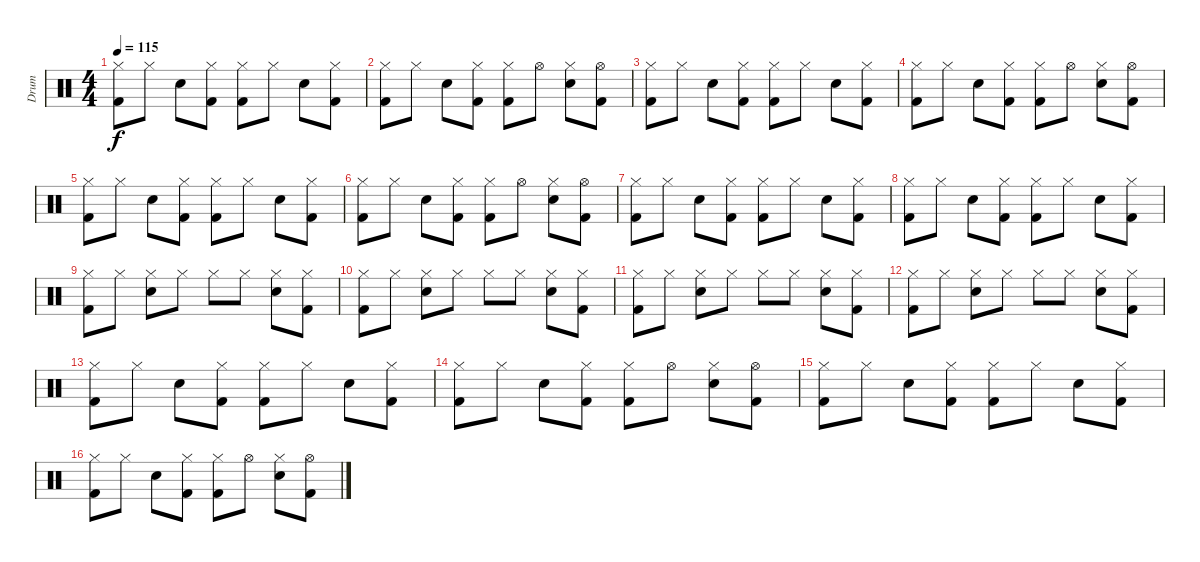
\track ("Drum" "Drum") {instrument percussion}
\staff {score}
\articulation defaults
\ts (4 4)
\tempo 115
\clef neutral
\ks c
("Hi-Hat (closed)" "Kick (hit) 2").8{dy f} "Hi-Hat (closed)".8 "Electric Snare (hit)".8 ("Hi-Hat (closed)" "Kick (hit) 2").8 ("Hi-Hat (closed)" "Kick (hit) 2").8 "Hi-Hat (closed)".8 "Electric Snare (hit)".8 ("Hi-Hat (closed)" "Kick (hit) 2").8 |
("Hi-Hat (closed)" "Kick (hit) 2").8 "Hi-Hat (closed)".8 "Electric Snare (hit)".8 ("Hi-Hat (closed)" "Kick (hit) 2").8 ("Hi-Hat (closed)" "Kick (hit) 2").8 "Hi-Hat (open)".8 ("Hi-Hat (closed)" "Electric Snare (hit)").8 ("Hi-Hat (open)" "Kick (hit) 2").8 |
("Hi-Hat (closed)" "Kick (hit) 2").8 "Hi-Hat (closed)".8 "Electric Snare (hit)".8 ("Hi-Hat (closed)" "Kick (hit) 2").8 ("Hi-Hat (closed)" "Kick (hit) 2").8 "Hi-Hat (closed)".8 "Electric Snare (hit)".8 ("Hi-Hat (closed)" "Kick (hit) 2").8 |
("Hi-Hat (closed)" "Kick (hit) 2").8 "Hi-Hat (closed)".8 "Electric Snare (hit)".8 ("Hi-Hat (closed)" "Kick (hit) 2").8 ("Hi-Hat (closed)" "Kick (hit) 2").8 "Hi-Hat (open)".8 ("Hi-Hat (closed)" "Electric Snare (hit)").8 ("Hi-Hat (open)" "Kick (hit) 2").8 |
("Hi-Hat (closed)" "Kick (hit) 2").8 "Hi-Hat (closed)".8 "Electric Snare (hit)".8 ("Hi-Hat (closed)" "Kick (hit) 2").8 ("Hi-Hat (closed)" "Kick (hit) 2").8 "Hi-Hat (closed)".8 "Electric Snare (hit)".8 ("Hi-Hat (closed)" "Kick (hit) 2").8 |
("Hi-Hat (closed)" "Kick (hit) 2").8 "Hi-Hat (closed)".8 "Electric Snare (hit)".8 ("Hi-Hat (closed)" "Kick (hit) 2").8 ("Hi-Hat (closed)" "Kick (hit) 2").8 "Hi-Hat (open)".8 ("Hi-Hat (closed)" "Electric Snare (hit)").8 ("Hi-Hat (open)" "Kick (hit) 2").8 |
("Hi-Hat (closed)" "Kick (hit) 2").8 "Hi-Hat (closed)".8 "Electric Snare (hit)".8 ("Hi-Hat (closed)" "Kick (hit) 2").8 ("Hi-Hat (closed)" "Kick (hit) 2").8 "Hi-Hat (closed)".8 "Electric Snare (hit)".8 ("Hi-Hat (closed)" "Kick (hit) 2").8 |
("Hi-Hat (closed)" "Kick (hit) 2").8 "Hi-Hat (closed)".8 "Electric Snare (hit)".8 ("Hi-Hat (closed)" "Kick (hit) 2").8 ("Hi-Hat (closed)" "Kick (hit) 2").8 "Hi-Hat (closed)".8 "Electric Snare (hit)".8 ("Hi-Hat (closed)" "Kick (hit) 2").8 |
("Hi-Hat (closed)" "Kick (hit) 2").8 "Hi-Hat (closed)".8 ("Hi-Hat (closed)" "Snare (hit) 2").8 "Hi-Hat (closed)".8 "Hi-Hat (closed)".8 "Hi-Hat (closed)".8 ("Hi-Hat (closed)" "Snare (hit) 2").8 ("Hi-Hat (closed)" "Kick (hit) 2").8 |
("Hi-Hat (closed)" "Kick (hit) 2").8 "Hi-Hat (closed)".8 ("Hi-Hat (closed)" "Snare (hit) 2").8 "Hi-Hat (closed)".8 "Hi-Hat (closed)".8 "Hi-Hat (closed)".8 ("Hi-Hat (closed)" "Snare (hit) 2").8 ("Hi-Hat (closed)" "Kick (hit) 2").8 |
("Hi-Hat (closed)" "Kick (hit) 2").8 "Hi-Hat (closed)".8 ("Hi-Hat (closed)" "Snare (hit) 2").8 "Hi-Hat (closed)".8 "Hi-Hat (closed)".8 "Hi-Hat (closed)".8 ("Hi-Hat (closed)" "Snare (hit) 2").8 ("Hi-Hat (closed)" "Kick (hit) 2").8 |
("Hi-Hat (closed)" "Kick (hit) 2").8 "Hi-Hat (closed)".8 ("Hi-Hat (closed)" "Snare (hit) 2").8 "Hi-Hat (closed)".8 "Hi-Hat (closed)".8 "Hi-Hat (closed)".8 ("Hi-Hat (closed)" "Snare (hit) 2").8 ("Hi-Hat (closed)" "Kick (hit) 2").8 |
("Hi-Hat (closed)" "Kick (hit) 2").8 "Hi-Hat (closed)".8 "Electric Snare (hit)".8 ("Hi-Hat (closed)" "Kick (hit) 2").8 ("Hi-Hat (closed)" "Kick (hit) 2").8 "Hi-Hat (closed)".8 "Electric Snare (hit)".8 ("Hi-Hat (closed)" "Kick (hit) 2").8 |
("Hi-Hat (closed)" "Kick (hit) 2").8 "Hi-Hat (closed)".8 "Electric Snare (hit)".8 ("Hi-Hat (closed)" "Kick (hit) 2").8 ("Hi-Hat (closed)" "Kick (hit) 2").8 "Hi-Hat (open)".8 ("Hi-Hat (closed)" "Electric Snare (hit)").8 ("Hi-Hat (open)" "Kick (hit) 2").8 |
("Hi-Hat (closed)" "Kick (hit) 2").8 "Hi-Hat (closed)".8 "Electric Snare (hit)".8 ("Hi-Hat (closed)" "Kick (hit) 2").8 ("Hi-Hat (closed)" "Kick (hit) 2").8 "Hi-Hat (closed)".8 "Electric Snare (hit)".8 ("Hi-Hat (closed)" "Kick (hit) 2").8 |
("Hi-Hat (closed)" "Kick (hit) 2").8 "Hi-Hat (closed)".8 "Electric Snare (hit)".8 ("Hi-Hat (closed)" "Kick (hit) 2").8 ("Hi-Hat (closed)" "Kick (hit) 2").8 "Hi-Hat (open)".8 ("Hi-Hat (closed)" "Electric Snare (hit)").8 ("Hi-Hat (open)" "Kick (hit) 2").8
